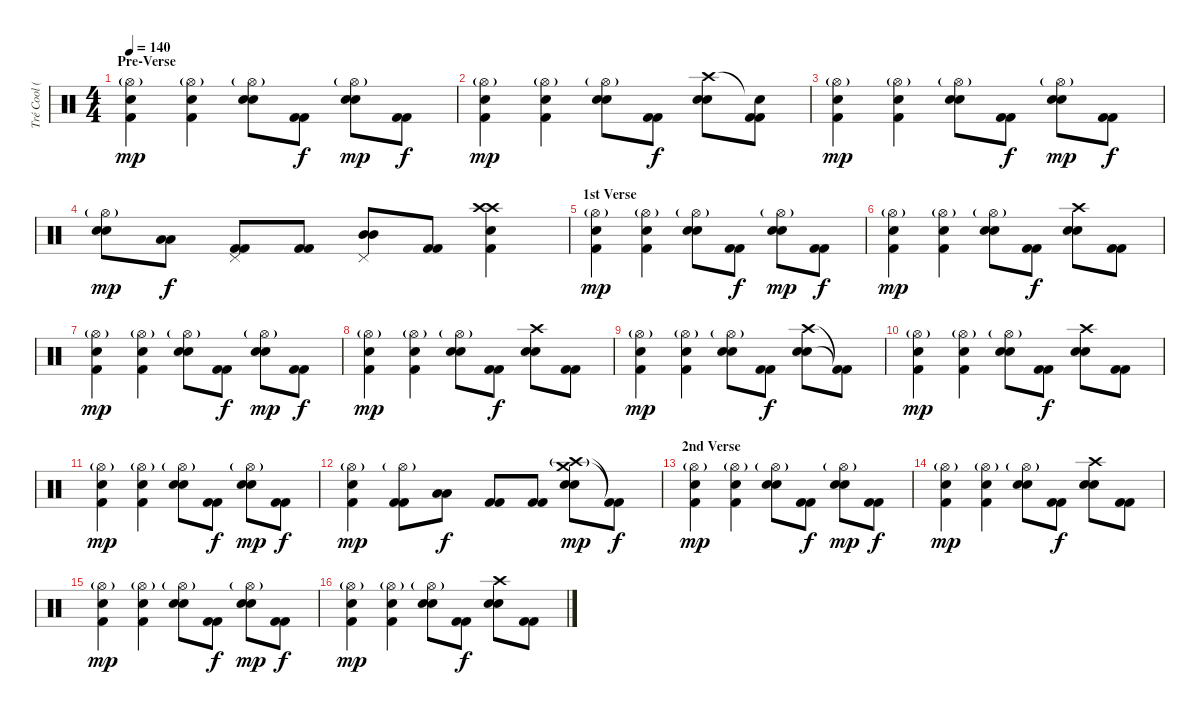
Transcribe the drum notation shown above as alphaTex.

\track ("Tré Cool (Drums)" "Tré Cool (") {instrument percussion}
\staff {score}
\articulation defaults
\ts (4 4)
\section ("" "Pre-Verse")
\tempo 140
\clef neutral
\ks c
("Hi-Hat (open)"{g} "Electric Snare (hit)" "Kick (hit) 2").4{dy mp} ("Hi-Hat (open)"{g} "Electric Snare (hit)" "Kick (hit) 2").4 ("Hi-Hat (open)"{g} "Electric Snare (hit)" "Electric Snare (hit)").8 ("Kick (hit) 2" "Kick (hit) 2").8{dy f} ("Hi-Hat (open)"{g} "Electric Snare (hit)" "Electric Snare (hit)").8{dy mp} ("Kick (hit) 2" "Kick (hit) 2").8{dy f} |
("Hi-Hat (open)"{g} "Electric Snare (hit)" "Kick (hit) 2").4{dy mp} ("Hi-Hat (open)"{g} "Electric Snare (hit)" "Kick (hit) 2").4 ("Hi-Hat (open)"{g} "Electric Snare (hit)" "Electric Snare (hit)").8 ("Kick (hit) 2" "Kick (hit) 2").8{dy f} ("Crash high (hit)" "Electric Snare (hit)" "Electric Snare (hit)").8 ("Snare (hit)"{t} "Kick (hit) 2" "Kick (hit) 2").8 |
("Hi-Hat (open)"{g} "Electric Snare (hit)" "Kick (hit) 2").4{dy mp} ("Hi-Hat (open)"{g} "Electric Snare (hit)" "Kick (hit) 2").4 ("Hi-Hat (open)"{g} "Electric Snare (hit)" "Electric Snare (hit)").8 ("Kick (hit) 2" "Kick (hit) 2").8{dy f} ("Hi-Hat (open)"{g} "Electric Snare (hit)" "Electric Snare (hit)").8{dy mp} ("Kick (hit) 2" "Kick (hit) 2").8{dy f} |
("Hi-Hat (open)"{g} "Electric Snare (hit)" "Electric Snare (hit)").8{dy mp} ("Low Tom (hit)" "Low Tom (hit)").8{dy f} ("Pedal Hi-Hat (hit)" "Kick (hit) 2" "Kick (hit) 2").8 ("Kick (hit) 2" "Kick (hit) 2").8 ("Pedal Hi-Hat (hit)" "Mid Tom (hit)" "Mid Tom (hit)").8 ("Kick (hit) 2" "Kick (hit) 2").8 ("Crash high (hit)" "Crash high (hit)" "Electric Snare (hit)" "Kick (hit) 2").4 |
\section ("" "1st Verse")
("Hi-Hat (open)"{g} "Electric Snare (hit)" "Kick (hit) 2").4{dy mp} ("Hi-Hat (open)"{g} "Electric Snare (hit)" "Kick (hit) 2").4 ("Hi-Hat (open)"{g} "Electric Snare (hit)" "Electric Snare (hit)").8 ("Kick (hit) 2" "Kick (hit) 2").8{dy f} ("Hi-Hat (open)"{g} "Electric Snare (hit)" "Electric Snare (hit)").8{dy mp} ("Kick (hit) 2" "Kick (hit) 2").8{dy f} |
("Hi-Hat (open)"{g} "Electric Snare (hit)" "Kick (hit) 2").4{dy mp} ("Hi-Hat (open)"{g} "Electric Snare (hit)" "Kick (hit) 2").4 ("Hi-Hat (open)"{g} "Electric Snare (hit)" "Electric Snare (hit)").8 ("Kick (hit) 2" "Kick (hit) 2").8{dy f} ("Crash high (hit)" "Electric Snare (hit)" "Electric Snare (hit)").8 ("Kick (hit) 2" "Kick (hit) 2").8 |
("Hi-Hat (open)"{g} "Electric Snare (hit)" "Kick (hit) 2").4{dy mp} ("Hi-Hat (open)"{g} "Electric Snare (hit)" "Kick (hit) 2").4 ("Hi-Hat (open)"{g} "Electric Snare (hit)" "Electric Snare (hit)").8 ("Kick (hit) 2" "Kick (hit) 2").8{dy f} ("Hi-Hat (open)"{g} "Electric Snare (hit)" "Electric Snare (hit)").8{dy mp} ("Kick (hit) 2" "Kick (hit) 2").8{dy f} |
("Hi-Hat (open)"{g} "Electric Snare (hit)" "Kick (hit) 2").4{dy mp} ("Hi-Hat (open)"{g} "Electric Snare (hit)" "Kick (hit) 2").4 ("Hi-Hat (open)"{g} "Electric Snare (hit)" "Electric Snare (hit)").8 ("Kick (hit) 2" "Kick (hit) 2").8{dy f} ("Crash high (hit)" "Electric Snare (hit)" "Electric Snare (hit)").8 ("Kick (hit) 2" "Kick (hit) 2").8 |
("Hi-Hat (open)"{g} "Electric Snare (hit)" "Kick (hit) 2").4{dy mp} ("Hi-Hat (open)"{g} "Electric Snare (hit)" "Kick (hit) 2").4 ("Hi-Hat (open)"{g} "Electric Snare (hit)" "Electric Snare (hit)").8 ("Kick (hit) 2" "Kick (hit) 2").8{dy f} ("Crash high (hit)" "Electric Snare (hit)" "Electric Snare (hit)").8 ("Kick (hit) 2"{t} "Kick (hit) 2"{t}).8 |
("Hi-Hat (open)"{g} "Electric Snare (hit)" "Kick (hit) 2").4{dy mp} ("Hi-Hat (open)"{g} "Electric Snare (hit)" "Kick (hit) 2").4 ("Hi-Hat (open)"{g} "Electric Snare (hit)" "Electric Snare (hit)").8 ("Kick (hit) 2" "Kick (hit) 2").8{dy f} ("Crash high (hit)" "Electric Snare (hit)" "Electric Snare (hit)").8 ("Kick (hit) 2" "Kick (hit) 2").8 |
("Hi-Hat (open)"{g} "Electric Snare (hit)" "Kick (hit) 2").4{dy mp} ("Hi-Hat (open)"{g} "Electric Snare (hit)" "Kick (hit) 2").4 ("Hi-Hat (open)"{g} "Electric Snare (hit)" "Electric Snare (hit)").8 ("Kick (hit) 2" "Kick (hit) 2").8{dy f} ("Hi-Hat (open)"{g} "Electric Snare (hit)" "Electric Snare (hit)").8{dy mp} ("Kick (hit) 2" "Kick (hit) 2").8{dy f} |
("Hi-Hat (open)"{g} "Electric Snare (hit)" "Kick (hit) 2").4{dy mp} ("Hi-Hat (open)"{g} "Kick (hit) 2" "Kick (hit) 2").8 ("Low Tom (hit)" "Low Tom (hit)").8{dy f} ("Kick (hit) 2" "Kick (hit) 2").8 ("Kick (hit) 2" "Kick (hit) 2").8 ("Crash high (hit)"{g} "Crash medium (hit)" "Electric Snare (hit)" "Electric Snare (hit)").8{dy mp} ("Kick (hit) 2"{t} "Kick (hit) 2"{t}).8{dy f} |
\section ("" "2nd Verse")
("Hi-Hat (open)"{g} "Electric Snare (hit)" "Kick (hit) 2").4{dy mp} ("Hi-Hat (open)"{g} "Electric Snare (hit)" "Kick (hit) 2").4 ("Hi-Hat (open)"{g} "Electric Snare (hit)" "Electric Snare (hit)").8 ("Kick (hit) 2" "Kick (hit) 2").8{dy f} ("Hi-Hat (open)"{g} "Electric Snare (hit)" "Electric Snare (hit)").8{dy mp} ("Kick (hit) 2" "Kick (hit) 2").8{dy f} |
("Hi-Hat (open)"{g} "Electric Snare (hit)" "Kick (hit) 2").4{dy mp} ("Hi-Hat (open)"{g} "Electric Snare (hit)" "Kick (hit) 2").4 ("Hi-Hat (open)"{g} "Electric Snare (hit)" "Electric Snare (hit)").8 ("Kick (hit) 2" "Kick (hit) 2").8{dy f} ("Crash high (hit)" "Electric Snare (hit)" "Electric Snare (hit)").8 ("Kick (hit) 2" "Kick (hit) 2").8 |
("Hi-Hat (open)"{g} "Electric Snare (hit)" "Kick (hit) 2").4{dy mp} ("Hi-Hat (open)"{g} "Electric Snare (hit)" "Kick (hit) 2").4 ("Hi-Hat (open)"{g} "Electric Snare (hit)" "Electric Snare (hit)").8 ("Kick (hit) 2" "Kick (hit) 2").8{dy f} ("Hi-Hat (open)"{g} "Electric Snare (hit)" "Electric Snare (hit)").8{dy mp} ("Kick (hit) 2" "Kick (hit) 2").8{dy f} |
("Hi-Hat (open)"{g} "Electric Snare (hit)" "Kick (hit) 2").4{dy mp} ("Hi-Hat (open)"{g} "Electric Snare (hit)" "Kick (hit) 2").4 ("Hi-Hat (open)"{g} "Electric Snare (hit)" "Electric Snare (hit)").8 ("Kick (hit) 2" "Kick (hit) 2").8{dy f} ("Crash high (hit)" "Electric Snare (hit)" "Electric Snare (hit)").8 ("Kick (hit) 2" "Kick (hit) 2").8
